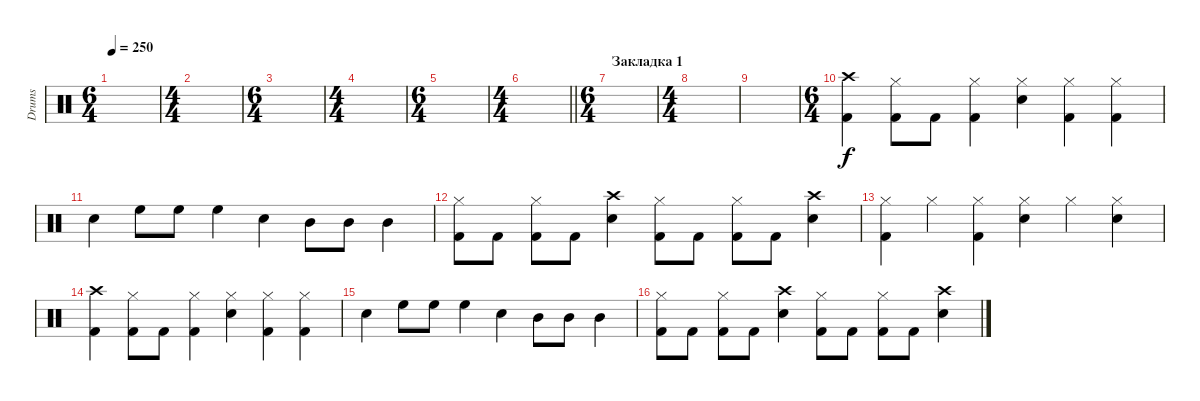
\track ("Drums" "Drums") {instrument percussion}
\staff {score}
\articulation defaults
\ts (6 4)
\tempo 250
\clef neutral
\ks c
|
\ts (4 4)
|
\ts (6 4)
|
\ts (4 4)
|
\ts (6 4)
|
\ts (4 4)
\barLineRight lightlight
|
\ts (6 4)
\section ("" "Закладка 1")
|
\ts (4 4)
|
|
\ts (6 4)
("Crash high (hit)" "Kick (hit) 2").4 ("Hi-Hat (closed)" "Kick (hit) 2").8 "Kick (hit) 2".8 ("Hi-Hat (closed)" "Kick (hit) 2").4 ("Hi-Hat (closed)" "Snare (hit) 2").4 ("Hi-Hat (closed)" "Kick (hit) 2").4 ("Hi-Hat (closed)" "Kick (hit) 2").4 |
"Snare (hit) 2".4 "High Floor Tom (hit)".8 "High Floor Tom (hit)".8 "High Floor Tom (hit)".4 "Snare (hit) 2".4 "Mid Tom (hit)".8 "Mid Tom (hit)".8 "Mid Tom (hit)".4 |
("Hi-Hat (closed)" "Kick (hit) 2").8 "Kick (hit) 2".8 ("Hi-Hat (closed)" "Kick (hit) 2").8 "Kick (hit) 2".8 ("Crash high (hit)" "Snare (hit) 2").4 ("Hi-Hat (closed)" "Kick (hit) 2").8 "Kick (hit) 2".8 ("Hi-Hat (closed)" "Kick (hit) 2").8 "Kick (hit) 2".8 ("Crash high (hit)" "Snare (hit) 2").4 |
("Hi-Hat (closed)" "Kick (hit) 2").4 "Hi-Hat (closed)".4 ("Hi-Hat (closed)" "Kick (hit) 2").4 ("Hi-Hat (closed)" "Snare (hit) 2").4 "Hi-Hat (closed)".4 ("Hi-Hat (closed)" "Snare (hit) 2").4 |
("Crash high (hit)" "Kick (hit) 2").4 ("Hi-Hat (closed)" "Kick (hit) 2").8 "Kick (hit) 2".8 ("Hi-Hat (closed)" "Kick (hit) 2").4 ("Hi-Hat (closed)" "Snare (hit) 2").4 ("Hi-Hat (closed)" "Kick (hit) 2").4 ("Hi-Hat (closed)" "Kick (hit) 2").4 |
"Snare (hit) 2".4 "High Floor Tom (hit)".8 "High Floor Tom (hit)".8 "High Floor Tom (hit)".4 "Snare (hit) 2".4 "Mid Tom (hit)".8 "Mid Tom (hit)".8 "Mid Tom (hit)".4 |
("Hi-Hat (closed)" "Kick (hit) 2").8 "Kick (hit) 2".8 ("Hi-Hat (closed)" "Kick (hit) 2").8 "Kick (hit) 2".8 ("Crash high (hit)" "Snare (hit) 2").4 ("Hi-Hat (closed)" "Kick (hit) 2").8 "Kick (hit) 2".8 ("Hi-Hat (closed)" "Kick (hit) 2").8 "Kick (hit) 2".8 ("Crash high (hit)" "Snare (hit) 2").4
